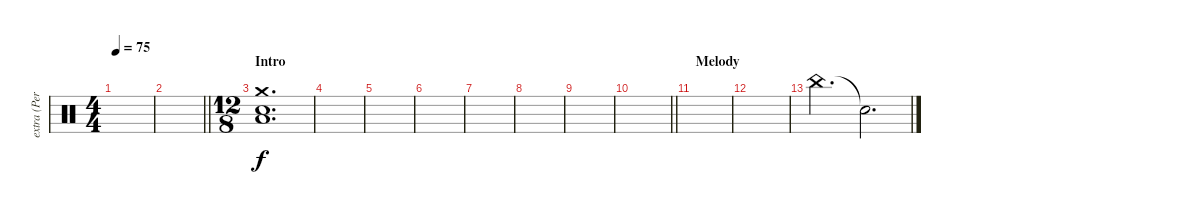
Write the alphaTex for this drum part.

\track ("extra (Percusión)" "extra (Per") {instrument percussion}
\staff {score}
\articulation defaults
\ts (4 4)
\tempo 75
\clef neutral
\ks c
|
\barLineRight lightlight
|
\ts (12 8)
\section ("" "Intro")
("Crash medium (hit)" "Electric Snare (hit)" "Low Floor Tom (hit)").1{d} |
|
|
|
|
|
|
\barLineRight lightlight
|
\section ("" "Melody")
|
|
"China (hit)".2{d} "Snare (hit)"{t}.2{d}
